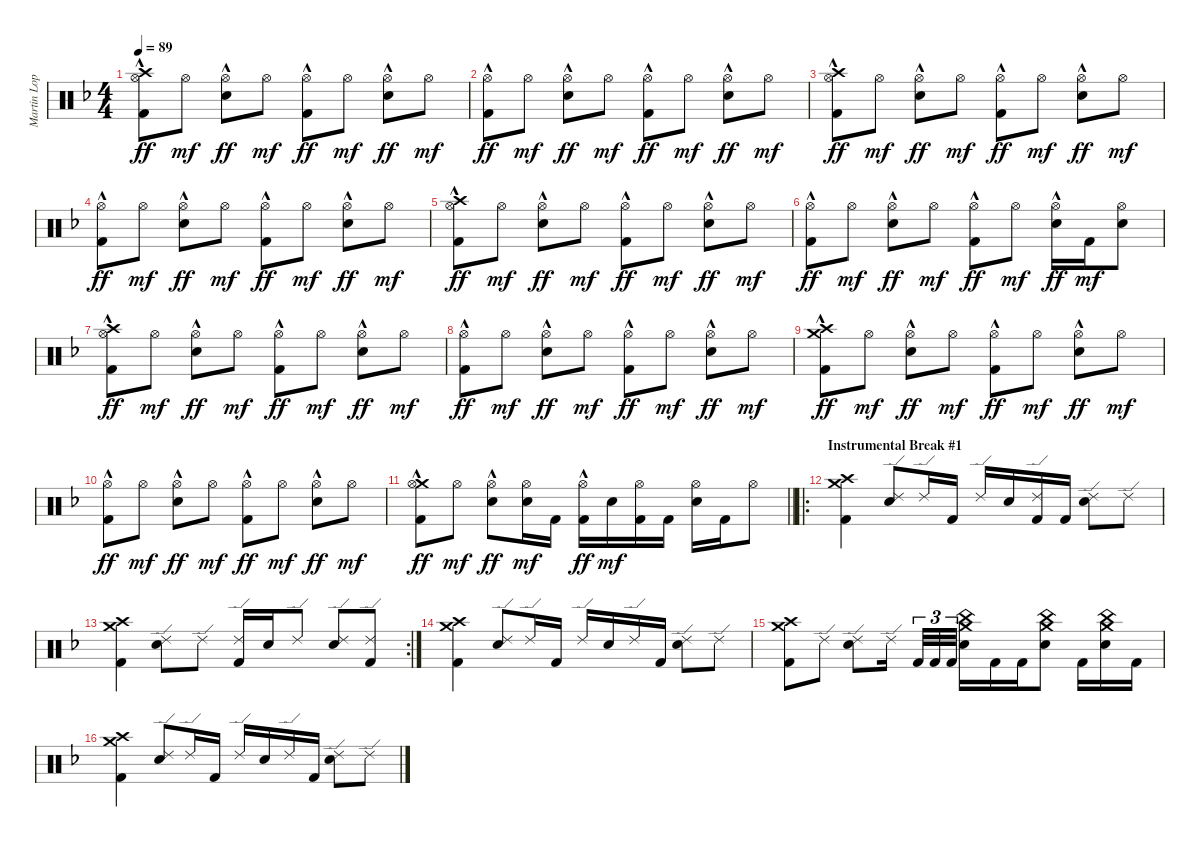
\track ("Martin Lopez - Drums" "Martin Lop") {instrument percussion}
\staff {score}
\articulation defaults
\ts (4 4)
\tempo 89
\clef neutral
\ks f
("Crash high (hit)" "Hi-Hat (open)" "Kick (hit) 2"{hac}).8{dy ff} "Hi-Hat (open)".8{dy mf} ("Hi-Hat (open)" "Electric Snare (hit)"{hac}).8{dy ff} "Hi-Hat (open)".8{dy mf} ("Hi-Hat (open)" "Kick (hit) 2"{hac}).8{dy ff} "Hi-Hat (open)".8{dy mf} ("Hi-Hat (open)" "Electric Snare (hit)"{hac}).8{dy ff} "Hi-Hat (open)".8{dy mf} |
("Hi-Hat (open)" "Kick (hit) 2"{hac}).8{dy ff} "Hi-Hat (open)".8{dy mf} ("Hi-Hat (open)" "Electric Snare (hit)"{hac}).8{dy ff} "Hi-Hat (open)".8{dy mf} ("Hi-Hat (open)" "Kick (hit) 2"{hac}).8{dy ff} "Hi-Hat (open)".8{dy mf} ("Hi-Hat (open)" "Electric Snare (hit)"{hac}).8{dy ff} "Hi-Hat (open)".8{dy mf} |
("Crash high (hit)" "Hi-Hat (open)" "Kick (hit) 2"{hac}).8{dy ff} "Hi-Hat (open)".8{dy mf} ("Hi-Hat (open)" "Electric Snare (hit)"{hac}).8{dy ff} "Hi-Hat (open)".8{dy mf} ("Hi-Hat (open)" "Kick (hit) 2"{hac}).8{dy ff} "Hi-Hat (open)".8{dy mf} ("Hi-Hat (open)" "Electric Snare (hit)"{hac}).8{dy ff} "Hi-Hat (open)".8{dy mf} |
("Hi-Hat (open)" "Kick (hit) 2"{hac}).8{dy ff} "Hi-Hat (open)".8{dy mf} ("Hi-Hat (open)" "Electric Snare (hit)"{hac}).8{dy ff} "Hi-Hat (open)".8{dy mf} ("Hi-Hat (open)" "Kick (hit) 2"{hac}).8{dy ff} "Hi-Hat (open)".8{dy mf} ("Hi-Hat (open)" "Electric Snare (hit)"{hac}).8{dy ff} "Hi-Hat (open)".8{dy mf} |
("Crash high (hit)" "Hi-Hat (open)" "Kick (hit) 2"{hac}).8{dy ff} "Hi-Hat (open)".8{dy mf} ("Hi-Hat (open)" "Electric Snare (hit)"{hac}).8{dy ff} "Hi-Hat (open)".8{dy mf} ("Hi-Hat (open)" "Kick (hit) 2"{hac}).8{dy ff} "Hi-Hat (open)".8{dy mf} ("Hi-Hat (open)" "Electric Snare (hit)"{hac}).8{dy ff} "Hi-Hat (open)".8{dy mf} |
("Hi-Hat (open)" "Kick (hit) 2"{hac}).8{dy ff} "Hi-Hat (open)".8{dy mf} ("Hi-Hat (open)" "Electric Snare (hit)"{hac}).8{dy ff} "Hi-Hat (open)".8{dy mf} ("Hi-Hat (open)" "Kick (hit) 2"{hac}).8{dy ff} "Hi-Hat (open)".8{dy mf} ("Hi-Hat (open)" "Electric Snare (hit)"{hac}).16{dy ff} "Kick (hit) 2".16{dy mf} ("Hi-Hat (open)" "Electric Snare (hit)").8 |
("Crash high (hit)" "Hi-Hat (open)" "Kick (hit) 2"{hac}).8{dy ff} "Hi-Hat (open)".8{dy mf} ("Hi-Hat (open)" "Electric Snare (hit)"{hac}).8{dy ff} "Hi-Hat (open)".8{dy mf} ("Hi-Hat (open)" "Kick (hit) 2"{hac}).8{dy ff} "Hi-Hat (open)".8{dy mf} ("Hi-Hat (open)" "Electric Snare (hit)"{hac}).8{dy ff} "Hi-Hat (open)".8{dy mf} |
("Hi-Hat (open)" "Kick (hit) 2"{hac}).8{dy ff} "Hi-Hat (open)".8{dy mf} ("Hi-Hat (open)" "Electric Snare (hit)"{hac}).8{dy ff} "Hi-Hat (open)".8{dy mf} ("Hi-Hat (open)" "Kick (hit) 2"{hac}).8{dy ff} "Hi-Hat (open)".8{dy mf} ("Hi-Hat (open)" "Electric Snare (hit)"{hac}).8{dy ff} "Hi-Hat (open)".8{dy mf} |
("Crash high (hit)" "Crash medium (hit)" "Kick (hit) 2"{hac}).8{dy ff} "Hi-Hat (open)".8{dy mf} ("Hi-Hat (open)" "Electric Snare (hit)"{hac}).8{dy ff} "Hi-Hat (open)".8{dy mf} ("Hi-Hat (open)" "Kick (hit) 2"{hac}).8{dy ff} "Hi-Hat (open)".8{dy mf} ("Hi-Hat (open)" "Electric Snare (hit)"{hac}).8{dy ff} "Hi-Hat (open)".8{dy mf} |
("Hi-Hat (open)" "Kick (hit) 2"{hac}).8{dy ff} "Hi-Hat (open)".8{dy mf} ("Hi-Hat (open)" "Electric Snare (hit)"{hac}).8{dy ff} "Hi-Hat (open)".8{dy mf} ("Hi-Hat (open)" "Kick (hit) 2"{hac}).8{dy ff} "Hi-Hat (open)".8{dy mf} ("Hi-Hat (open)" "Electric Snare (hit)"{hac}).8{dy ff} "Hi-Hat (open)".8{dy mf} |
\barLineRight lightlight
("Crash medium (hit)" "Hi-Hat (open)" "Kick (hit) 2"{hac}).8{dy ff} "Hi-Hat (open)".8{dy mf} ("Hi-Hat (open)" "Electric Snare (hit)"{hac}).8{dy ff} ("Hi-Hat (open)" "Electric Snare (hit)").16{dy mf} "Kick (hit) 2".16 ("Hi-Hat (open)" "Kick (hit) 2"{hac}).16{dy ff} "Electric Snare (hit)".16{dy mf} ("Hi-Hat (open)" "Kick (hit) 2").16 "Kick (hit) 2".16 ("Hi-Hat (open)" "Electric Snare (hit)").16 "Kick (hit) 2".16 "Hi-Hat (open)".8 |
\ro
\section ("" "Instrumental Break #1")
("Crash high (hit)" "Crash medium (hit)" "Kick (hit) 2").4 ("Ride (edge) 2" "Electric Snare (hit)").8 "Ride (edge) 2".16 "Kick (hit) 2".16 "Ride (edge) 2".16 "Electric Snare (hit)".16 ("Ride (edge) 2" "Kick (hit) 2").16 "Kick (hit) 2".16 ("Ride (edge) 2" "Electric Snare (hit)").8 "Ride (edge) 2".8 |
\rc 2
("Crash high (hit)" "Crash medium (hit)" "Kick (hit) 2").4 ("Ride (edge) 2" "Electric Snare (hit)").8 "Ride (edge) 2".8 ("Ride (edge) 2" "Kick (hit) 2").16 "Electric Snare (hit)".16 "Ride (edge) 2".8 ("Ride (edge) 2" "Electric Snare (hit)").8 ("Ride (edge) 2" "Kick (hit) 2").8 |
("Crash high (hit)" "Crash medium (hit)" "Kick (hit) 2").4 ("Ride (edge) 2" "Electric Snare (hit)").8 "Ride (edge) 2".16 "Kick (hit) 2".16 "Ride (edge) 2".16 "Electric Snare (hit)".16 "Ride (edge) 2".16 "Kick (hit) 2".16 ("Ride (edge) 2" "Electric Snare (hit)").8 "Ride (edge) 2".8 |
("Crash high (hit)" "Crash medium (hit)" "Kick (hit) 2").8 "Ride (edge) 2".8 ("Ride (edge) 2" "Electric Snare (hit)").8 "Ride (edge) 2".16{beam splitsecondary} "Kick (hit) 2".32{tu (3 2)} "Kick (hit) 2".32{tu (3 2)} "Kick (hit) 2".32{tu (3 2)} ("Crash medium (hit)" "China (hit)" "Electric Snare (hit)").16 "Kick (hit) 2".16 "Kick (hit) 2".16 ("Crash medium (hit)" "China (hit)" "Electric Snare (hit)").8 "Kick (hit) 2".16 ("Crash medium (hit)" "China (hit)" "Electric Snare (hit)").16 "Kick (hit) 2".16 |
("Crash high (hit)" "Crash medium (hit)" "Kick (hit) 2").4 ("Ride (edge) 2" "Electric Snare (hit)").8 "Ride (edge) 2".16 "Kick (hit) 2".16 "Ride (edge) 2".16 "Electric Snare (hit)".16 "Ride (edge) 2".16 "Kick (hit) 2".16 ("Ride (edge) 2" "Electric Snare (hit)").8 "Ride (edge) 2".8
